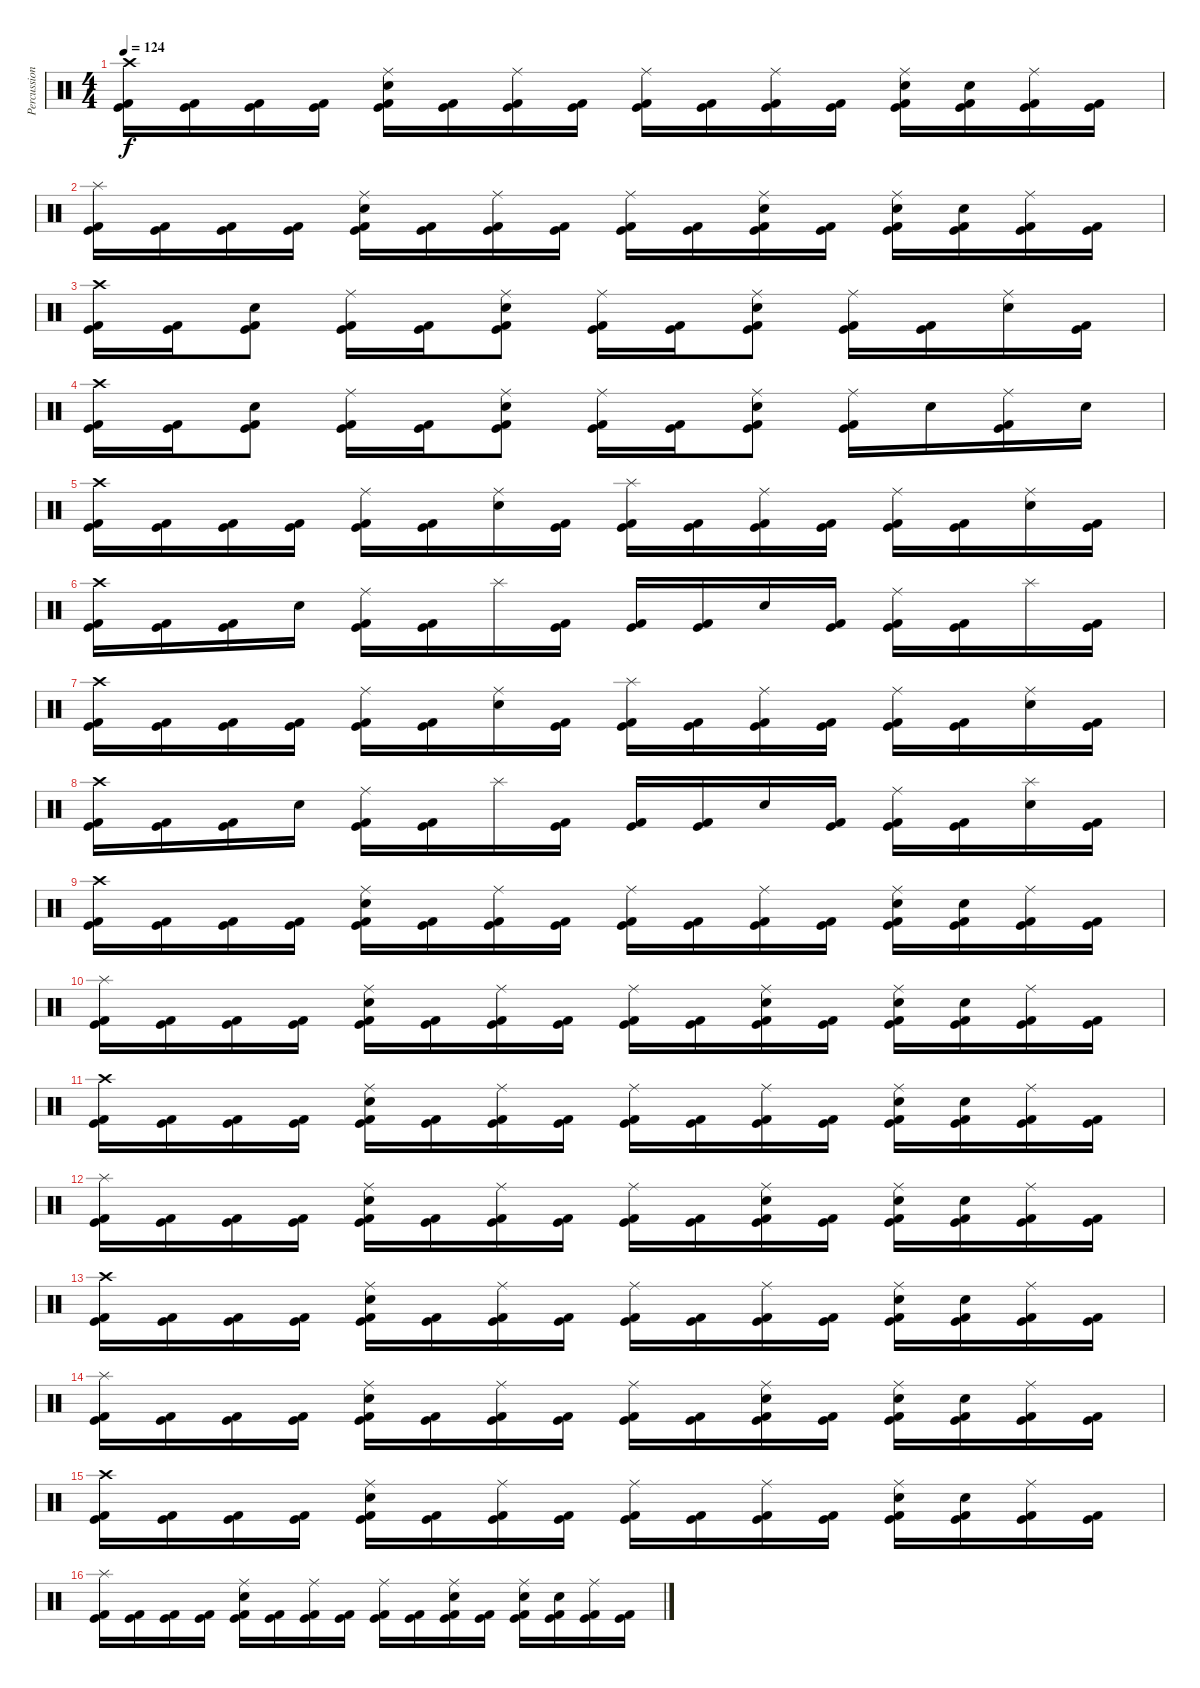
\track ("Percussion" "Percussion") {instrument percussion}
\staff {score}
\articulation defaults
\ts (4 4)
\tempo 124
\clef neutral
\ks c
("Crash high (hit)" "Kick (hit) 2" "Kick (hit)").16{dy f} ("Kick (hit) 2" "Kick (hit)").16 ("Kick (hit) 2" "Kick (hit)").16 ("Kick (hit) 2" "Kick (hit)").16 ("Ride (middle)" "Snare (hit) 2" "Kick (hit) 2" "Kick (hit)").16 ("Kick (hit) 2" "Kick (hit)").16 ("Ride (middle)" "Kick (hit) 2" "Kick (hit)").16 ("Kick (hit) 2" "Kick (hit)").16 ("Ride (middle)" "Kick (hit) 2" "Kick (hit)").16 ("Kick (hit) 2" "Kick (hit)").16 ("Ride (middle)" "Kick (hit) 2" "Kick (hit)").16 ("Kick (hit) 2" "Kick (hit)").16 ("Ride (middle)" "Snare (hit) 2" "Kick (hit) 2" "Kick (hit)").16 ("Snare (hit) 2" "Kick (hit) 2" "Kick (hit)").16 ("Ride (middle)" "Kick (hit) 2" "Kick (hit)").16 ("Kick (hit) 2" "Kick (hit)").16 |
("Splash (hit)" "Kick (hit) 2" "Kick (hit)").16 ("Kick (hit) 2" "Kick (hit)").16 ("Kick (hit) 2" "Kick (hit)").16 ("Kick (hit) 2" "Kick (hit)").16 ("Ride (middle)" "Snare (hit) 2" "Kick (hit) 2" "Kick (hit)").16 ("Kick (hit) 2" "Kick (hit)").16 ("Ride (middle)" "Kick (hit) 2" "Kick (hit)").16 ("Kick (hit) 2" "Kick (hit)").16 ("Ride (middle)" "Kick (hit) 2" "Kick (hit)").16 ("Kick (hit) 2" "Kick (hit)").16 ("Ride (middle)" "Snare (hit) 2" "Kick (hit) 2" "Kick (hit)").16 ("Kick (hit) 2" "Kick (hit)").16 ("Ride (middle)" "Snare (hit) 2" "Kick (hit) 2" "Kick (hit)").16 ("Snare (hit) 2" "Kick (hit) 2" "Kick (hit)").16 ("Ride (middle)" "Kick (hit) 2" "Kick (hit)").16 ("Kick (hit) 2" "Kick (hit)").16 |
("Crash high (hit)" "Kick (hit) 2" "Kick (hit)").16 ("Kick (hit) 2" "Kick (hit)").16 ("Snare (hit) 2" "Kick (hit) 2" "Kick (hit)").8 ("Ride (middle)" "Kick (hit) 2" "Kick (hit)").16 ("Kick (hit) 2" "Kick (hit)").16 ("Ride (middle)" "Snare (hit) 2" "Kick (hit) 2" "Kick (hit)").8 ("Ride (middle)" "Kick (hit) 2" "Kick (hit)").16 ("Kick (hit) 2" "Kick (hit)").16 ("Ride (middle)" "Snare (hit) 2" "Kick (hit) 2" "Kick (hit)").8 ("Ride (middle)" "Kick (hit) 2" "Kick (hit)").16 ("Kick (hit) 2" "Kick (hit)").16 ("Ride (middle)" "Snare (hit) 2").16 ("Kick (hit) 2" "Kick (hit)").16 |
("Crash high (hit)" "Kick (hit) 2" "Kick (hit)").16 ("Kick (hit) 2" "Kick (hit)").16 ("Snare (hit) 2" "Kick (hit) 2" "Kick (hit)").8 ("Ride (middle)" "Kick (hit) 2" "Kick (hit)").16 ("Kick (hit) 2" "Kick (hit)").16 ("Ride (middle)" "Snare (hit) 2" "Kick (hit) 2" "Kick (hit)").8 ("Ride (middle)" "Kick (hit) 2" "Kick (hit)").16 ("Kick (hit) 2" "Kick (hit)").16 ("Ride (middle)" "Snare (hit) 2" "Kick (hit) 2" "Kick (hit)").8 ("Ride (middle)" "Kick (hit) 2" "Kick (hit)").16 "Snare (hit) 2".16 ("Ride (middle)" "Kick (hit) 2" "Kick (hit)").16 "Snare (hit) 2".16 |
("Crash high (hit)" "Kick (hit) 2" "Kick (hit)").16 ("Kick (hit) 2" "Kick (hit)").16 ("Kick (hit) 2" "Kick (hit)").16 ("Kick (hit) 2" "Kick (hit)").16 ("Ride (middle)" "Kick (hit) 2" "Kick (hit)").16 ("Kick (hit) 2" "Kick (hit)").16 ("Ride (middle)" "Snare (hit) 2").16 ("Kick (hit) 2" "Kick (hit)").16 ("Splash (hit)" "Kick (hit) 2" "Kick (hit)").16 ("Kick (hit) 2" "Kick (hit)").16 ("Ride (middle)" "Kick (hit) 2" "Kick (hit)").16 ("Kick (hit) 2" "Kick (hit)").16 ("Ride (middle)" "Kick (hit) 2" "Kick (hit)").16 ("Kick (hit) 2" "Kick (hit)").16 ("Ride (middle)" "Snare (hit) 2").16 ("Kick (hit) 2" "Kick (hit)").16 |
("Crash high (hit)" "Kick (hit) 2" "Kick (hit)").16 ("Kick (hit) 2" "Kick (hit)").16 ("Kick (hit) 2" "Kick (hit)").16 "Snare (hit) 2".16 ("Ride (middle)" "Kick (hit) 2" "Kick (hit)").16 ("Kick (hit) 2" "Kick (hit)").16 "Splash (hit)".16 ("Kick (hit) 2" "Kick (hit)").16 ("Kick (hit) 2" "Kick (hit)").16 ("Kick (hit) 2" "Kick (hit)").16 "Snare (hit) 2".16 ("Kick (hit) 2" "Kick (hit)").16 ("Ride (middle)" "Kick (hit) 2" "Kick (hit)").16 ("Kick (hit) 2" "Kick (hit)").16 "Splash (hit)".16 ("Kick (hit) 2" "Kick (hit)").16 |
("Crash high (hit)" "Kick (hit) 2" "Kick (hit)").16 ("Kick (hit) 2" "Kick (hit)").16 ("Kick (hit) 2" "Kick (hit)").16 ("Kick (hit) 2" "Kick (hit)").16 ("Ride (middle)" "Kick (hit) 2" "Kick (hit)").16 ("Kick (hit) 2" "Kick (hit)").16 ("Ride (middle)" "Snare (hit) 2").16 ("Kick (hit) 2" "Kick (hit)").16 ("Splash (hit)" "Kick (hit) 2" "Kick (hit)").16 ("Kick (hit) 2" "Kick (hit)").16 ("Ride (middle)" "Kick (hit) 2" "Kick (hit)").16 ("Kick (hit) 2" "Kick (hit)").16 ("Ride (middle)" "Kick (hit) 2" "Kick (hit)").16 ("Kick (hit) 2" "Kick (hit)").16 ("Ride (middle)" "Snare (hit) 2").16 ("Kick (hit) 2" "Kick (hit)").16 |
("Crash high (hit)" "Kick (hit) 2" "Kick (hit)").16 ("Kick (hit) 2" "Kick (hit)").16 ("Kick (hit) 2" "Kick (hit)").16 "Snare (hit) 2".16 ("Ride (middle)" "Kick (hit) 2" "Kick (hit)").16 ("Kick (hit) 2" "Kick (hit)").16 "Splash (hit)".16 ("Kick (hit) 2" "Kick (hit)").16 ("Kick (hit) 2" "Kick (hit)").16 ("Kick (hit) 2" "Kick (hit)").16 "Snare (hit) 2".16 ("Kick (hit) 2" "Kick (hit)").16 ("Ride (middle)" "Kick (hit) 2" "Kick (hit)").16 ("Kick (hit) 2" "Kick (hit)").16 ("Splash (hit)" "Snare (hit) 2").16 ("Kick (hit) 2" "Kick (hit)").16 |
("Crash high (hit)" "Kick (hit) 2" "Kick (hit)").16 ("Kick (hit) 2" "Kick (hit)").16 ("Kick (hit) 2" "Kick (hit)").16 ("Kick (hit) 2" "Kick (hit)").16 ("Ride (middle)" "Snare (hit) 2" "Kick (hit) 2" "Kick (hit)").16 ("Kick (hit) 2" "Kick (hit)").16 ("Ride (middle)" "Kick (hit) 2" "Kick (hit)").16 ("Kick (hit) 2" "Kick (hit)").16 ("Ride (middle)" "Kick (hit) 2" "Kick (hit)").16 ("Kick (hit) 2" "Kick (hit)").16 ("Ride (middle)" "Kick (hit) 2" "Kick (hit)").16 ("Kick (hit) 2" "Kick (hit)").16 ("Ride (middle)" "Snare (hit) 2" "Kick (hit) 2" "Kick (hit)").16 ("Snare (hit) 2" "Kick (hit) 2" "Kick (hit)").16 ("Ride (middle)" "Kick (hit) 2" "Kick (hit)").16 ("Kick (hit) 2" "Kick (hit)").16 |
("Splash (hit)" "Kick (hit) 2" "Kick (hit)").16 ("Kick (hit) 2" "Kick (hit)").16 ("Kick (hit) 2" "Kick (hit)").16 ("Kick (hit) 2" "Kick (hit)").16 ("Ride (middle)" "Snare (hit) 2" "Kick (hit) 2" "Kick (hit)").16 ("Kick (hit) 2" "Kick (hit)").16 ("Ride (middle)" "Kick (hit) 2" "Kick (hit)").16 ("Kick (hit) 2" "Kick (hit)").16 ("Ride (middle)" "Kick (hit) 2" "Kick (hit)").16 ("Kick (hit) 2" "Kick (hit)").16 ("Ride (middle)" "Snare (hit) 2" "Kick (hit) 2" "Kick (hit)").16 ("Kick (hit) 2" "Kick (hit)").16 ("Ride (middle)" "Snare (hit) 2" "Kick (hit) 2" "Kick (hit)").16 ("Snare (hit) 2" "Kick (hit) 2" "Kick (hit)").16 ("Ride (middle)" "Kick (hit) 2" "Kick (hit)").16 ("Kick (hit) 2" "Kick (hit)").16 |
("Crash high (hit)" "Kick (hit) 2" "Kick (hit)").16 ("Kick (hit) 2" "Kick (hit)").16 ("Kick (hit) 2" "Kick (hit)").16 ("Kick (hit) 2" "Kick (hit)").16 ("Ride (middle)" "Snare (hit) 2" "Kick (hit) 2" "Kick (hit)").16 ("Kick (hit) 2" "Kick (hit)").16 ("Ride (middle)" "Kick (hit) 2" "Kick (hit)").16 ("Kick (hit) 2" "Kick (hit)").16 ("Ride (middle)" "Kick (hit) 2" "Kick (hit)").16 ("Kick (hit) 2" "Kick (hit)").16 ("Ride (middle)" "Kick (hit) 2" "Kick (hit)").16 ("Kick (hit) 2" "Kick (hit)").16 ("Ride (middle)" "Snare (hit) 2" "Kick (hit) 2" "Kick (hit)").16 ("Snare (hit) 2" "Kick (hit) 2" "Kick (hit)").16 ("Ride (middle)" "Kick (hit) 2" "Kick (hit)").16 ("Kick (hit) 2" "Kick (hit)").16 |
("Splash (hit)" "Kick (hit) 2" "Kick (hit)").16 ("Kick (hit) 2" "Kick (hit)").16 ("Kick (hit) 2" "Kick (hit)").16 ("Kick (hit) 2" "Kick (hit)").16 ("Ride (middle)" "Snare (hit) 2" "Kick (hit) 2" "Kick (hit)").16 ("Kick (hit) 2" "Kick (hit)").16 ("Ride (middle)" "Kick (hit) 2" "Kick (hit)").16 ("Kick (hit) 2" "Kick (hit)").16 ("Ride (middle)" "Kick (hit) 2" "Kick (hit)").16 ("Kick (hit) 2" "Kick (hit)").16 ("Ride (middle)" "Snare (hit) 2" "Kick (hit) 2" "Kick (hit)").16 ("Kick (hit) 2" "Kick (hit)").16 ("Ride (middle)" "Snare (hit) 2" "Kick (hit) 2" "Kick (hit)").16 ("Snare (hit) 2" "Kick (hit) 2" "Kick (hit)").16 ("Ride (middle)" "Kick (hit) 2" "Kick (hit)").16 ("Kick (hit) 2" "Kick (hit)").16 |
("Crash high (hit)" "Kick (hit) 2" "Kick (hit)").16 ("Kick (hit) 2" "Kick (hit)").16 ("Kick (hit) 2" "Kick (hit)").16 ("Kick (hit) 2" "Kick (hit)").16 ("Ride (middle)" "Snare (hit) 2" "Kick (hit) 2" "Kick (hit)").16 ("Kick (hit) 2" "Kick (hit)").16 ("Ride (middle)" "Kick (hit) 2" "Kick (hit)").16 ("Kick (hit) 2" "Kick (hit)").16 ("Ride (middle)" "Kick (hit) 2" "Kick (hit)").16 ("Kick (hit) 2" "Kick (hit)").16 ("Ride (middle)" "Kick (hit) 2" "Kick (hit)").16 ("Kick (hit) 2" "Kick (hit)").16 ("Ride (middle)" "Snare (hit) 2" "Kick (hit) 2" "Kick (hit)").16 ("Snare (hit) 2" "Kick (hit) 2" "Kick (hit)").16 ("Ride (middle)" "Kick (hit) 2" "Kick (hit)").16 ("Kick (hit) 2" "Kick (hit)").16 |
("Splash (hit)" "Kick (hit) 2" "Kick (hit)").16 ("Kick (hit) 2" "Kick (hit)").16 ("Kick (hit) 2" "Kick (hit)").16 ("Kick (hit) 2" "Kick (hit)").16 ("Ride (middle)" "Snare (hit) 2" "Kick (hit) 2" "Kick (hit)").16 ("Kick (hit) 2" "Kick (hit)").16 ("Ride (middle)" "Kick (hit) 2" "Kick (hit)").16 ("Kick (hit) 2" "Kick (hit)").16 ("Ride (middle)" "Kick (hit) 2" "Kick (hit)").16 ("Kick (hit) 2" "Kick (hit)").16 ("Ride (middle)" "Snare (hit) 2" "Kick (hit) 2" "Kick (hit)").16 ("Kick (hit) 2" "Kick (hit)").16 ("Ride (middle)" "Snare (hit) 2" "Kick (hit) 2" "Kick (hit)").16 ("Snare (hit) 2" "Kick (hit) 2" "Kick (hit)").16 ("Ride (middle)" "Kick (hit) 2" "Kick (hit)").16 ("Kick (hit) 2" "Kick (hit)").16 |
("Crash high (hit)" "Kick (hit) 2" "Kick (hit)").16 ("Kick (hit) 2" "Kick (hit)").16 ("Kick (hit) 2" "Kick (hit)").16 ("Kick (hit) 2" "Kick (hit)").16 ("Ride (middle)" "Snare (hit) 2" "Kick (hit) 2" "Kick (hit)").16 ("Kick (hit) 2" "Kick (hit)").16 ("Ride (middle)" "Kick (hit) 2" "Kick (hit)").16 ("Kick (hit) 2" "Kick (hit)").16 ("Ride (middle)" "Kick (hit) 2" "Kick (hit)").16 ("Kick (hit) 2" "Kick (hit)").16 ("Ride (middle)" "Kick (hit) 2" "Kick (hit)").16 ("Kick (hit) 2" "Kick (hit)").16 ("Ride (middle)" "Snare (hit) 2" "Kick (hit) 2" "Kick (hit)").16 ("Snare (hit) 2" "Kick (hit) 2" "Kick (hit)").16 ("Ride (middle)" "Kick (hit) 2" "Kick (hit)").16 ("Kick (hit) 2" "Kick (hit)").16 |
("Splash (hit)" "Kick (hit) 2" "Kick (hit)").16 ("Kick (hit) 2" "Kick (hit)").16 ("Kick (hit) 2" "Kick (hit)").16 ("Kick (hit) 2" "Kick (hit)").16 ("Ride (middle)" "Snare (hit) 2" "Kick (hit) 2" "Kick (hit)").16 ("Kick (hit) 2" "Kick (hit)").16 ("Ride (middle)" "Kick (hit) 2" "Kick (hit)").16 ("Kick (hit) 2" "Kick (hit)").16 ("Ride (middle)" "Kick (hit) 2" "Kick (hit)").16 ("Kick (hit) 2" "Kick (hit)").16 ("Ride (middle)" "Snare (hit) 2" "Kick (hit) 2" "Kick (hit)").16 ("Kick (hit) 2" "Kick (hit)").16 ("Ride (middle)" "Snare (hit) 2" "Kick (hit) 2" "Kick (hit)").16 ("Snare (hit) 2" "Kick (hit) 2" "Kick (hit)").16 ("Ride (middle)" "Kick (hit) 2" "Kick (hit)").16 ("Kick (hit) 2" "Kick (hit)").16
